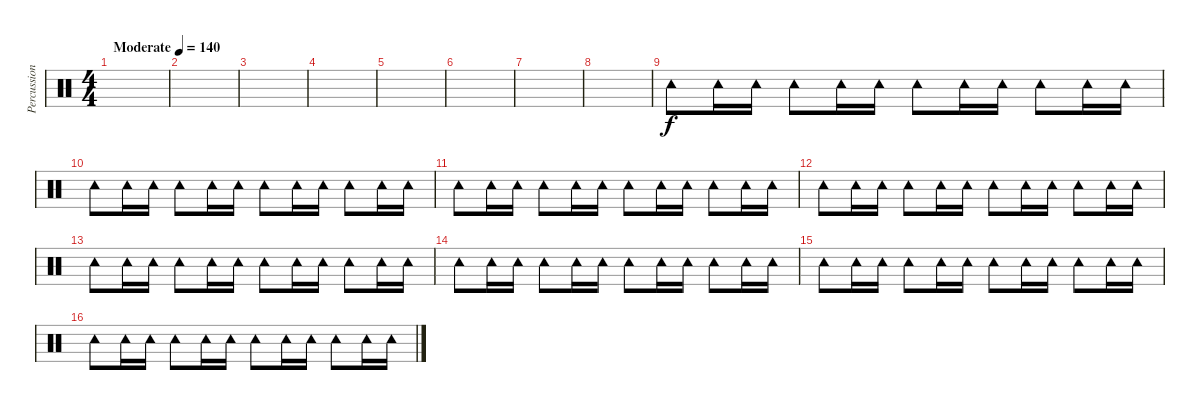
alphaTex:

\track ("Percussion" "Percussion") {instrument percussion}
\staff {score}
\articulation defaults
\ts (4 4)
\tempo (140 "Moderate")
\clef neutral
\ks c
|
|
|
|
|
|
|
|
"Tambourine (hit)".8 "Tambourine (hit)".16 "Tambourine (hit)".16 "Tambourine (hit)".8 "Tambourine (hit)".16 "Tambourine (hit)".16 "Tambourine (hit)".8 "Tambourine (hit)".16 "Tambourine (hit)".16 "Tambourine (hit)".8 "Tambourine (hit)".16 "Tambourine (hit)".16 |
"Tambourine (hit)".8 "Tambourine (hit)".16 "Tambourine (hit)".16 "Tambourine (hit)".8 "Tambourine (hit)".16 "Tambourine (hit)".16 "Tambourine (hit)".8 "Tambourine (hit)".16 "Tambourine (hit)".16 "Tambourine (hit)".8 "Tambourine (hit)".16 "Tambourine (hit)".16 |
"Tambourine (hit)".8 "Tambourine (hit)".16 "Tambourine (hit)".16 "Tambourine (hit)".8 "Tambourine (hit)".16 "Tambourine (hit)".16 "Tambourine (hit)".8 "Tambourine (hit)".16 "Tambourine (hit)".16 "Tambourine (hit)".8 "Tambourine (hit)".16 "Tambourine (hit)".16 |
"Tambourine (hit)".8 "Tambourine (hit)".16 "Tambourine (hit)".16 "Tambourine (hit)".8 "Tambourine (hit)".16 "Tambourine (hit)".16 "Tambourine (hit)".8 "Tambourine (hit)".16 "Tambourine (hit)".16 "Tambourine (hit)".8 "Tambourine (hit)".16 "Tambourine (hit)".16 |
"Tambourine (hit)".8 "Tambourine (hit)".16 "Tambourine (hit)".16 "Tambourine (hit)".8 "Tambourine (hit)".16 "Tambourine (hit)".16 "Tambourine (hit)".8 "Tambourine (hit)".16 "Tambourine (hit)".16 "Tambourine (hit)".8 "Tambourine (hit)".16 "Tambourine (hit)".16 |
"Tambourine (hit)".8 "Tambourine (hit)".16 "Tambourine (hit)".16 "Tambourine (hit)".8 "Tambourine (hit)".16 "Tambourine (hit)".16 "Tambourine (hit)".8 "Tambourine (hit)".16 "Tambourine (hit)".16 "Tambourine (hit)".8 "Tambourine (hit)".16 "Tambourine (hit)".16 |
"Tambourine (hit)".8 "Tambourine (hit)".16 "Tambourine (hit)".16 "Tambourine (hit)".8 "Tambourine (hit)".16 "Tambourine (hit)".16 "Tambourine (hit)".8 "Tambourine (hit)".16 "Tambourine (hit)".16 "Tambourine (hit)".8 "Tambourine (hit)".16 "Tambourine (hit)".16 |
"Tambourine (hit)".8 "Tambourine (hit)".16 "Tambourine (hit)".16 "Tambourine (hit)".8 "Tambourine (hit)".16 "Tambourine (hit)".16 "Tambourine (hit)".8 "Tambourine (hit)".16 "Tambourine (hit)".16 "Tambourine (hit)".8 "Tambourine (hit)".16 "Tambourine (hit)".16
